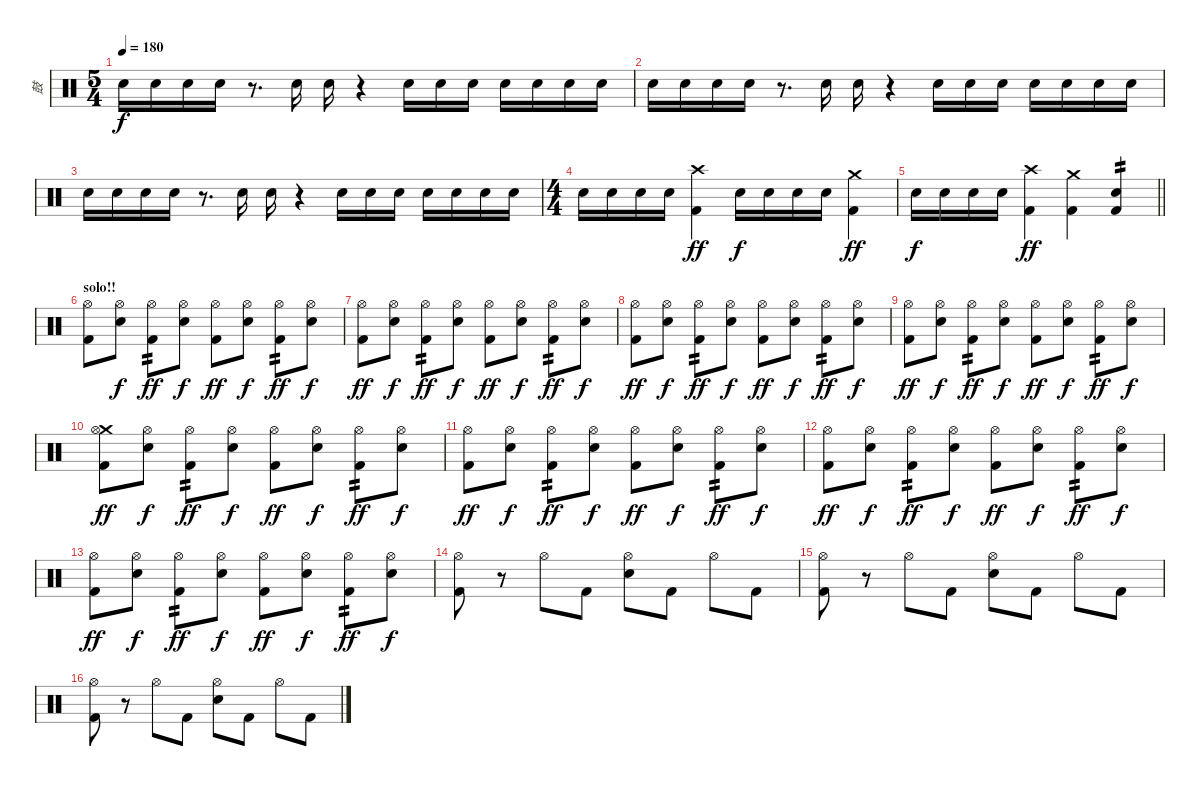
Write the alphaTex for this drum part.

\track ("鼓" "鼓") {instrument percussion}
\staff {score}
\articulation defaults
\ts (5 4)
\tempo 180
\clef neutral
\ks c "Snare (hit) 2".16{dy f} "Snare (hit) 2".16 "Snare (hit) 2".16 "Snare (hit) 2".16
r.8{d} "Snare (hit) 2".16 "Snare (hit) 2".16 r.4 "Snare (hit) 2".16 "Snare (hit) 2".16 "Snare (hit) 2".16 "Snare (hit) 2".16 "Snare (hit) 2".16 "Snare (hit) 2".16 "Snare (hit) 2".16 |
"Snare (hit) 2".16 "Snare (hit) 2".16 "Snare (hit) 2".16 "Snare (hit) 2".16 r.8{d} "Snare (hit) 2".16 "Snare (hit) 2".16 r.4 "Snare (hit) 2".16 "Snare (hit) 2".16 "Snare (hit) 2".16 "Snare (hit) 2".16 "Snare (hit) 2".16 "Snare (hit) 2".16 "Snare (hit) 2".16 |
"Snare (hit) 2".16 "Snare (hit) 2".16 "Snare (hit) 2".16 "Snare (hit) 2".16 r.8{d} "Snare (hit) 2".16 "Snare (hit) 2".16 r.4 "Snare (hit) 2".16 "Snare (hit) 2".16 "Snare (hit) 2".16 "Snare (hit) 2".16 "Snare (hit) 2".16 "Snare (hit) 2".16 "Snare (hit) 2".16 |
\ts (4 4)
"Snare (hit) 2".16 "Snare (hit) 2".16 "Snare (hit) 2".16 "Snare (hit) 2".16 ("Crash high (hit)" "Kick (hit) 2").4{dy ff} "Snare (hit) 2".16{dy f} "Snare (hit) 2".16 "Snare (hit) 2".16 "Snare (hit) 2".16 ("Crash medium (hit)" "Kick (hit) 2").4{dy ff} |
\barLineRight lightlight "Snare (hit) 2".16{dy f} "Snare (hit) 2".16 "Snare (hit) 2".16 "Snare (hit) 2".16
("Crash high (hit)" "Kick (hit) 2").4{dy ff} ("Crash medium (hit)" "Kick (hit) 2").4 ("Snare (hit) 2" "Kick (hit) 2").4{tp 2} |
\section ("" "solo!!")
("Hi-Hat (open)" "Kick (hit) 2").8 ("Hi-Hat (open)" "Snare (hit) 2").8{dy f} ("Hi-Hat (open)" "Kick (hit) 2").8{tp 2 dy ff} ("Hi-Hat (open)" "Snare (hit) 2").8{dy f} ("Hi-Hat (open)" "Kick (hit) 2").8{dy ff} ("Hi-Hat (open)" "Snare (hit) 2").8{dy f} ("Hi-Hat (open)" "Kick (hit) 2").8{tp 2 dy ff} ("Hi-Hat (open)" "Snare (hit) 2").8{dy f} |
("Hi-Hat (open)" "Kick (hit) 2").8{dy ff} ("Hi-Hat (open)" "Snare (hit) 2").8{dy f} ("Hi-Hat (open)" "Kick (hit) 2").8{tp 2 dy ff} ("Hi-Hat (open)" "Snare (hit) 2").8{dy f} ("Hi-Hat (open)" "Kick (hit) 2").8{dy ff} ("Hi-Hat (open)" "Snare (hit) 2").8{dy f} ("Hi-Hat (open)" "Kick (hit) 2").8{tp 2 dy ff} ("Hi-Hat (open)" "Snare (hit) 2").8{dy f} |
("Hi-Hat (open)" "Kick (hit) 2").8{dy ff} ("Hi-Hat (open)" "Snare (hit) 2").8{dy f} ("Hi-Hat (open)" "Kick (hit) 2").8{tp 2 dy ff} ("Hi-Hat (open)" "Snare (hit) 2").8{dy f} ("Hi-Hat (open)" "Kick (hit) 2").8{dy ff} ("Hi-Hat (open)" "Snare (hit) 2").8{dy f} ("Hi-Hat (open)" "Kick (hit) 2").8{tp 2 dy ff} ("Hi-Hat (open)" "Snare (hit) 2").8{dy f} |
("Hi-Hat (open)" "Kick (hit) 2").8{dy ff} ("Hi-Hat (open)" "Snare (hit) 2").8{dy f} ("Hi-Hat (open)" "Kick (hit) 2").8{tp 2 dy ff} ("Hi-Hat (open)" "Snare (hit) 2").8{dy f} ("Hi-Hat (open)" "Kick (hit) 2").8{dy ff} ("Hi-Hat (open)" "Snare (hit) 2").8{dy f} ("Hi-Hat (open)" "Kick (hit) 2").8{tp 2 dy ff} ("Hi-Hat (open)" "Snare (hit) 2").8{dy f} |
("Crash medium (hit)" "Hi-Hat (open)" "Kick (hit) 2").8{dy ff} ("Hi-Hat (open)" "Snare (hit) 2").8{dy f} ("Hi-Hat (open)" "Kick (hit) 2").8{tp 2 dy ff} ("Hi-Hat (open)" "Snare (hit) 2").8{dy f} ("Hi-Hat (open)" "Kick (hit) 2").8{dy ff} ("Hi-Hat (open)" "Snare (hit) 2").8{dy f} ("Hi-Hat (open)" "Kick (hit) 2").8{tp 2 dy ff} ("Hi-Hat (open)" "Snare (hit) 2").8{dy f} |
("Hi-Hat (open)" "Kick (hit) 2").8{dy ff} ("Hi-Hat (open)" "Snare (hit) 2").8{dy f} ("Hi-Hat (open)" "Kick (hit) 2").8{tp 2 dy ff} ("Hi-Hat (open)" "Snare (hit) 2").8{dy f} ("Hi-Hat (open)" "Kick (hit) 2").8{dy ff} ("Hi-Hat (open)" "Snare (hit) 2").8{dy f} ("Hi-Hat (open)" "Kick (hit) 2").8{tp 2 dy ff} ("Hi-Hat (open)" "Snare (hit) 2").8{dy f} |
("Hi-Hat (open)" "Kick (hit) 2").8{dy ff} ("Hi-Hat (open)" "Snare (hit) 2").8{dy f} ("Hi-Hat (open)" "Kick (hit) 2").8{tp 2 dy ff} ("Hi-Hat (open)" "Snare (hit) 2").8{dy f} ("Hi-Hat (open)" "Kick (hit) 2").8{dy ff} ("Hi-Hat (open)" "Snare (hit) 2").8{dy f} ("Hi-Hat (open)" "Kick (hit) 2").8{tp 2 dy ff} ("Hi-Hat (open)" "Snare (hit) 2").8{dy f} |
("Hi-Hat (open)" "Kick (hit) 2").8{dy ff} ("Hi-Hat (open)" "Snare (hit) 2").8{dy f} ("Hi-Hat (open)" "Kick (hit) 2").8{tp 2 dy ff} ("Hi-Hat (open)" "Snare (hit) 2").8{dy f} ("Hi-Hat (open)" "Kick (hit) 2").8{dy ff} ("Hi-Hat (open)" "Snare (hit) 2").8{dy f} ("Hi-Hat (open)" "Kick (hit) 2").8{tp 2 dy ff} ("Hi-Hat (open)" "Snare (hit) 2").8{dy f} |
("Hi-Hat (open)" "Kick (hit) 2").8 r.8 "Hi-Hat (open)".8 "Kick (hit) 2".8 ("Hi-Hat (open)" "Snare (hit) 2").8 "Kick (hit) 2".8 "Hi-Hat (open)".8 "Kick (hit) 2".8 |
("Hi-Hat (open)" "Kick (hit) 2").8 r.8 "Hi-Hat (open)".8 "Kick (hit) 2".8 ("Hi-Hat (open)" "Snare (hit) 2").8 "Kick (hit) 2".8 "Hi-Hat (open)".8 "Kick (hit) 2".8 |
("Hi-Hat (open)" "Kick (hit) 2").8 r.8 "Hi-Hat (open)".8 "Kick (hit) 2".8 ("Hi-Hat (open)" "Snare (hit) 2").8 "Kick (hit) 2".8 "Hi-Hat (open)".8 "Kick (hit) 2".8
